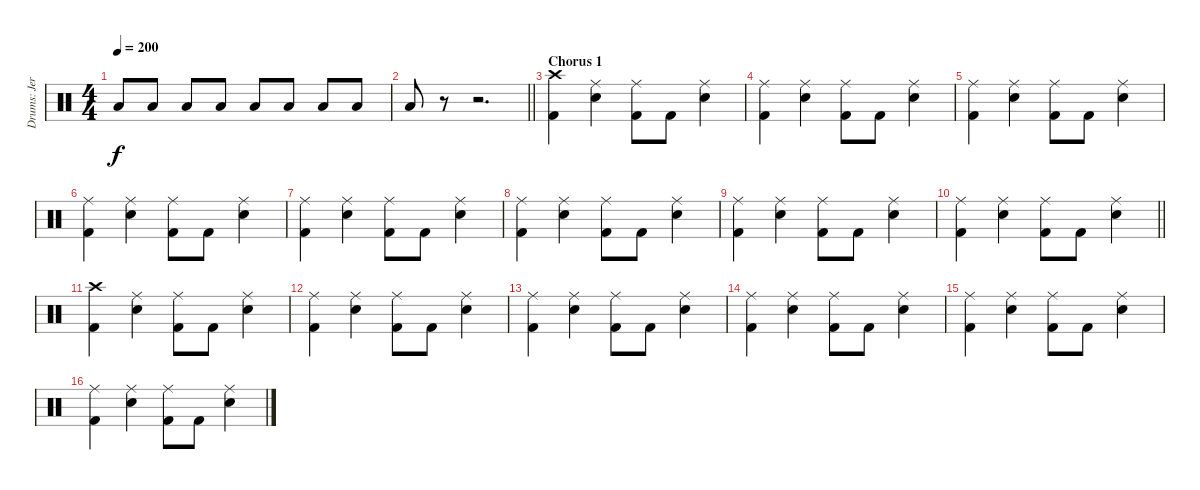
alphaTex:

\track ("Drums: Jere Luokkamäki" "Drums: Jer") {instrument percussion}
\staff {score}
\articulation defaults
\ts (4 4)
\tempo 200
\clef neutral
\ks aminor "Low Tom (hit)".8{dy f} "Low Tom (hit)".8 "Low Tom (hit)".8 "Low Tom (hit)".8 "Low Tom (hit)".8 "Low Tom (hit)".8 "Low Tom (hit)".8 "Low Tom (hit)".8
|
\barLineRight lightlight "Low Tom (hit)".8
r.8 r.2{d} |
\section ("" "Chorus 1")
("Crash high (hit)" "Kick (hit) 2").4 ("Ride (middle)" "Electric Snare (hit)").4 ("Ride (middle)" "Kick (hit) 2").8 "Kick (hit) 2".8 ("Ride (middle)" "Electric Snare (hit)").4 |
("Ride (middle)" "Kick (hit) 2").4 ("Ride (middle)" "Electric Snare (hit)").4 ("Ride (middle)" "Kick (hit) 2").8 "Kick (hit) 2".8 ("Ride (middle)" "Electric Snare (hit)").4 |
("Ride (middle)" "Kick (hit) 2").4 ("Ride (middle)" "Electric Snare (hit)").4 ("Ride (middle)" "Kick (hit) 2").8 "Kick (hit) 2".8 ("Ride (middle)" "Electric Snare (hit)").4 |
("Ride (middle)" "Kick (hit) 2").4 ("Ride (middle)" "Electric Snare (hit)").4 ("Ride (middle)" "Kick (hit) 2").8 "Kick (hit) 2".8 ("Ride (middle)" "Electric Snare (hit)").4 |
("Ride (middle)" "Kick (hit) 2").4 ("Ride (middle)" "Electric Snare (hit)").4 ("Ride (middle)" "Kick (hit) 2").8 "Kick (hit) 2".8 ("Ride (middle)" "Electric Snare (hit)").4 |
("Ride (middle)" "Kick (hit) 2").4 ("Ride (middle)" "Electric Snare (hit)").4 ("Ride (middle)" "Kick (hit) 2").8 "Kick (hit) 2".8 ("Ride (middle)" "Electric Snare (hit)").4 |
("Ride (middle)" "Kick (hit) 2").4 ("Ride (middle)" "Electric Snare (hit)").4 ("Ride (middle)" "Kick (hit) 2").8 "Kick (hit) 2".8 ("Ride (middle)" "Electric Snare (hit)").4 |
\barLineRight lightlight
("Ride (middle)" "Kick (hit) 2").4 ("Ride (middle)" "Electric Snare (hit)").4 ("Ride (middle)" "Kick (hit) 2").8 "Kick (hit) 2".8 ("Ride (middle)" "Electric Snare (hit)").4 |
("Crash high (hit)" "Kick (hit) 2").4 ("Ride (middle)" "Electric Snare (hit)").4 ("Ride (middle)" "Kick (hit) 2").8 "Kick (hit) 2".8 ("Ride (middle)" "Electric Snare (hit)").4 |
("Ride (middle)" "Kick (hit) 2").4 ("Ride (middle)" "Electric Snare (hit)").4 ("Ride (middle)" "Kick (hit) 2").8 "Kick (hit) 2".8 ("Ride (middle)" "Electric Snare (hit)").4 |
("Ride (middle)" "Kick (hit) 2").4 ("Ride (middle)" "Electric Snare (hit)").4 ("Ride (middle)" "Kick (hit) 2").8 "Kick (hit) 2".8 ("Ride (middle)" "Electric Snare (hit)").4 |
("Ride (middle)" "Kick (hit) 2").4 ("Ride (middle)" "Electric Snare (hit)").4 ("Ride (middle)" "Kick (hit) 2").8 "Kick (hit) 2".8 ("Ride (middle)" "Electric Snare (hit)").4 |
("Ride (middle)" "Kick (hit) 2").4 ("Ride (middle)" "Electric Snare (hit)").4 ("Ride (middle)" "Kick (hit) 2").8 "Kick (hit) 2".8 ("Ride (middle)" "Electric Snare (hit)").4 |
("Ride (middle)" "Kick (hit) 2").4 ("Ride (middle)" "Electric Snare (hit)").4 ("Ride (middle)" "Kick (hit) 2").8 "Kick (hit) 2".8 ("Ride (middle)" "Electric Snare (hit)").4
